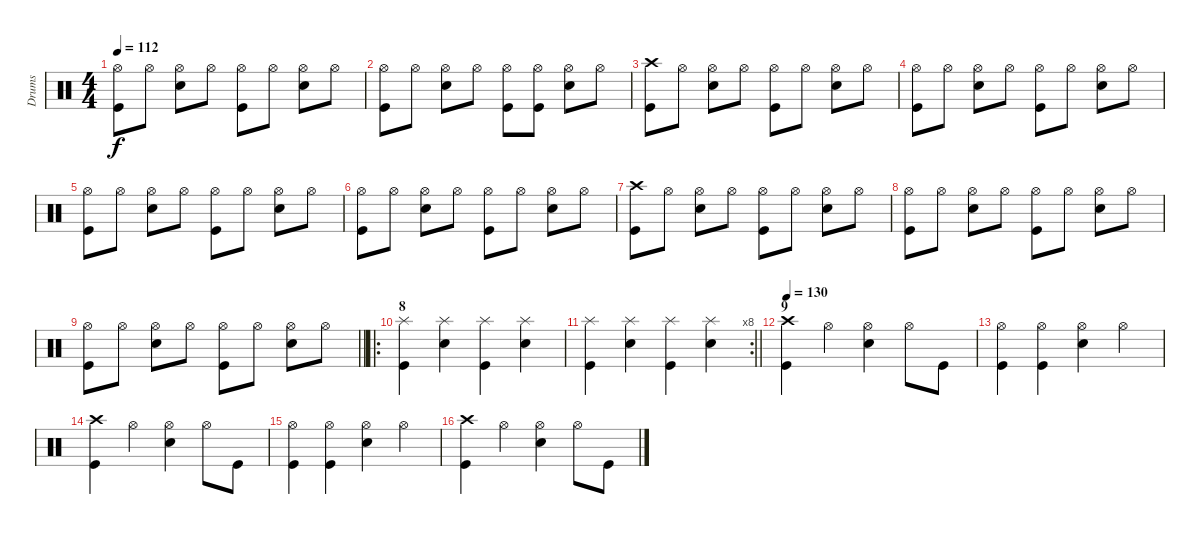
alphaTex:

\track ("Drums" "Drums") {instrument percussion}
\staff {score}
\articulation defaults
\ts (4 4)
\tempo 112
\clef neutral
\ks c
("Hi-Hat (open)" "Kick (hit)").8{dy f} "Hi-Hat (open)".8 ("Hi-Hat (open)" "Electric Snare (hit)").8 "Hi-Hat (open)".8 ("Hi-Hat (open)" "Kick (hit)").8 "Hi-Hat (open)".8 ("Hi-Hat (open)" "Electric Snare (hit)").8 "Hi-Hat (open)".8 |
("Hi-Hat (open)" "Kick (hit)").8 "Hi-Hat (open)".8 ("Hi-Hat (open)" "Electric Snare (hit)").8 "Hi-Hat (open)".8 ("Hi-Hat (open)" "Kick (hit)").8 ("Hi-Hat (open)" "Kick (hit)").8 ("Hi-Hat (open)" "Electric Snare (hit)").8 "Hi-Hat (open)".8 |
("Crash high (hit)" "Kick (hit)").8 "Hi-Hat (open)".8 ("Hi-Hat (open)" "Electric Snare (hit)").8 "Hi-Hat (open)".8 ("Hi-Hat (open)" "Kick (hit)").8 "Hi-Hat (open)".8 ("Hi-Hat (open)" "Electric Snare (hit)").8 "Hi-Hat (open)".8 |
("Hi-Hat (open)" "Kick (hit)").8 "Hi-Hat (open)".8 ("Hi-Hat (open)" "Electric Snare (hit)").8 "Hi-Hat (open)".8 ("Hi-Hat (open)" "Kick (hit)").8 "Hi-Hat (open)".8 ("Hi-Hat (open)" "Electric Snare (hit)").8 "Hi-Hat (open)".8 |
("Hi-Hat (open)" "Kick (hit)").8 "Hi-Hat (open)".8 ("Hi-Hat (open)" "Electric Snare (hit)").8 "Hi-Hat (open)".8 ("Hi-Hat (open)" "Kick (hit)").8 "Hi-Hat (open)".8 ("Hi-Hat (open)" "Electric Snare (hit)").8 "Hi-Hat (open)".8 |
("Hi-Hat (open)" "Kick (hit)").8 "Hi-Hat (open)".8 ("Hi-Hat (open)" "Electric Snare (hit)").8 "Hi-Hat (open)".8 ("Hi-Hat (open)" "Kick (hit)").8 "Hi-Hat (open)".8 ("Hi-Hat (open)" "Electric Snare (hit)").8 "Hi-Hat (open)".8 |
("Crash high (hit)" "Kick (hit)").8 "Hi-Hat (open)".8 ("Hi-Hat (open)" "Electric Snare (hit)").8 "Hi-Hat (open)".8 ("Hi-Hat (open)" "Kick (hit)").8 "Hi-Hat (open)".8 ("Hi-Hat (open)" "Electric Snare (hit)").8 "Hi-Hat (open)".8 |
("Hi-Hat (open)" "Kick (hit)").8 "Hi-Hat (open)".8 ("Hi-Hat (open)" "Electric Snare (hit)").8 "Hi-Hat (open)".8 ("Hi-Hat (open)" "Kick (hit)").8 "Hi-Hat (open)".8 ("Hi-Hat (open)" "Electric Snare (hit)").8 "Hi-Hat (open)".8 |
\barLineRight lightlight
("Hi-Hat (open)" "Kick (hit)").8 "Hi-Hat (open)".8 ("Hi-Hat (open)" "Electric Snare (hit)").8 "Hi-Hat (open)".8 ("Hi-Hat (open)" "Kick (hit)").8 "Hi-Hat (open)".8 ("Hi-Hat (open)" "Electric Snare (hit)").8 "Hi-Hat (open)".8 |
\ro
\section ("" "8")
("Splash (hit)" "Kick (hit)").4 ("Splash (hit)" "Electric Snare (hit)").4 ("Splash (hit)" "Kick (hit)").4 ("Splash (hit)" "Electric Snare (hit)").4 |
\rc 8
\barLineRight lightlight
("Splash (hit)" "Kick (hit)").4 ("Splash (hit)" "Electric Snare (hit)").4 ("Splash (hit)" "Kick (hit)").4 ("Splash (hit)" "Electric Snare (hit)").4 |
\section ("" "9")
\tempo 130
("Crash high (hit)" "Kick (hit)").4 "Hi-Hat (open)".4 ("Hi-Hat (open)" "Electric Snare (hit)").4 "Hi-Hat (open)".8 "Kick (hit)".8 |
("Hi-Hat (open)" "Kick (hit)").4 ("Hi-Hat (open)" "Kick (hit)").4 ("Hi-Hat (open)" "Electric Snare (hit)").4 "Hi-Hat (open)".4 |
("Crash high (hit)" "Kick (hit)").4 "Hi-Hat (open)".4 ("Hi-Hat (open)" "Electric Snare (hit)").4 "Hi-Hat (open)".8 "Kick (hit)".8 |
("Hi-Hat (open)" "Kick (hit)").4 ("Hi-Hat (open)" "Kick (hit)").4 ("Hi-Hat (open)" "Electric Snare (hit)").4 "Hi-Hat (open)".4 |
("Crash high (hit)" "Kick (hit)").4 "Hi-Hat (open)".4 ("Hi-Hat (open)" "Electric Snare (hit)").4 "Hi-Hat (open)".8 "Kick (hit)".8
